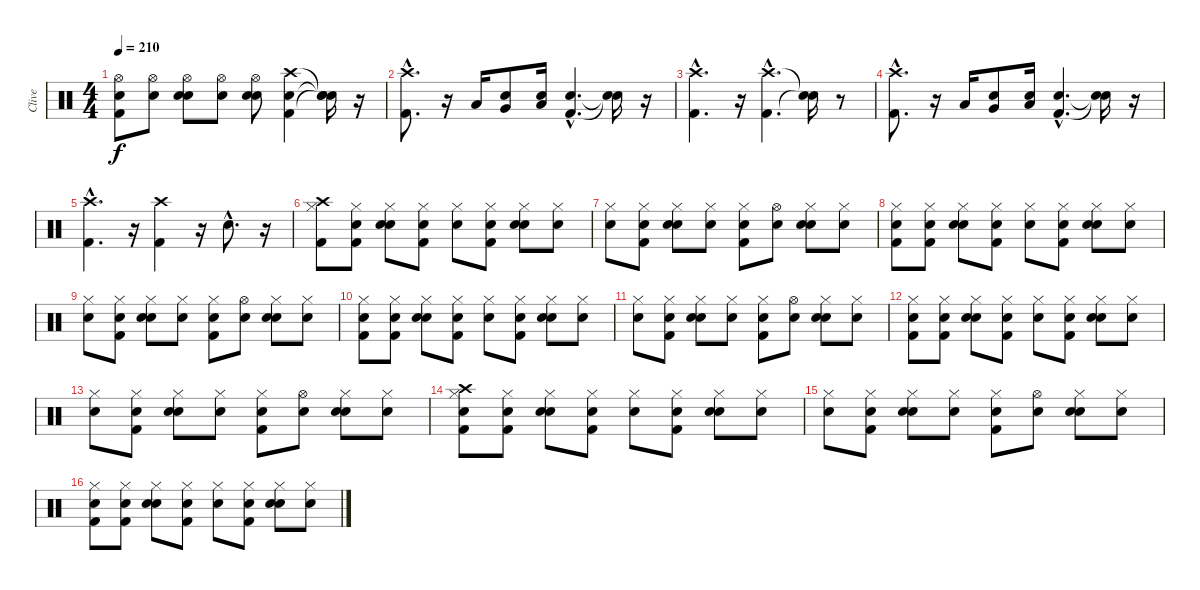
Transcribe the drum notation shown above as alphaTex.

\track ("Clive" "Clive") {instrument percussion}
\staff {score}
\articulation defaults
\ts (4 4)
\tempo 210
\clef neutral
\ks c
("Snare (hit)" "Kick (hit) 2" "Hi-Hat (open)").8{dy f} ("Snare (hit)" "Hi-Hat (open)").8 ("Snare (hit)" "Snare (hit) 2" "Hi-Hat (open)").8 ("Snare (hit)" "Hi-Hat (open)").8 ("Snare (hit)" "Snare (hit) 2" "Hi-Hat (open)").8 ("Snare (hit)" "Kick (hit) 2" "Crash high (hit)").4 ("Snare (hit)"{t} "Snare (hit)"{t} "Snare (hit)"{t}).16 r.16 |
("Kick (hit) 2"{hac} "Crash high (hit)"{hac}).8{d} r.16 "Low Tom (hit)".16 ("Snare (hit)" "Very Low Tom (hit)").8 ("Snare (hit)" "Low Floor Tom (hit)").16 ("Snare (hit)"{hac} "Kick (hit) 2"{hac}).4{d} ("Snare (hit)"{t} "Snare (hit)"{t}).16 r.16 |
("Kick (hit) 2"{hac} "Crash high (hit)"{hac}).4{d} r.16 ("Kick (hit) 2"{hac} "Crash high (hit)"{hac}).4{d} ("Snare (hit)"{t} "Snare (hit)"{t}).16 r.8 |
("Kick (hit) 2"{hac} "Crash high (hit)"{hac}).8{d} r.16 "Low Tom (hit)".16 ("Snare (hit)" "Very Low Tom (hit)").8 ("Snare (hit)" "Low Floor Tom (hit)").16 ("Snare (hit)"{hac} "Kick (hit) 2"{hac}).4{d} ("Snare (hit)"{t} "Snare (hit)"{t}).16 r.16 |
("Kick (hit) 2"{hac} "Crash high (hit)"{hac}).4{d} r.16 ("Kick (hit) 2" "Crash high (hit)").4 r.16 "Snare (hit) 2"{hac}.8{d} r.16 |
("Kick (hit) 2" "Hi-Hat (closed)" "Crash high (hit)").8 ("Snare (hit)" "Kick (hit) 2" "Hi-Hat (closed)").8 ("Snare (hit)" "Snare (hit) 2" "Hi-Hat (closed)").8 ("Snare (hit)" "Kick (hit) 2" "Hi-Hat (closed)").8 ("Snare (hit)" "Hi-Hat (closed)").8 ("Snare (hit)" "Kick (hit) 2" "Hi-Hat (closed)").8 ("Snare (hit)" "Snare (hit) 2" "Hi-Hat (closed)").8 ("Snare (hit)" "Hi-Hat (closed)").8 |
("Snare (hit)" "Hi-Hat (closed)").8 ("Snare (hit)" "Kick (hit) 2" "Hi-Hat (closed)").8 ("Snare (hit)" "Snare (hit) 2" "Hi-Hat (closed)").8 ("Snare (hit)" "Hi-Hat (closed)").8 ("Snare (hit)" "Kick (hit) 2" "Hi-Hat (closed)").8 ("Snare (hit)" "Hi-Hat (open)").8 ("Snare (hit)" "Snare (hit) 2" "Hi-Hat (closed)").8 ("Snare (hit)" "Hi-Hat (closed)").8 |
("Snare (hit)" "Kick (hit) 2" "Hi-Hat (closed)").8 ("Snare (hit)" "Kick (hit) 2" "Hi-Hat (closed)").8 ("Snare (hit)" "Snare (hit) 2" "Hi-Hat (closed)").8 ("Snare (hit)" "Kick (hit) 2" "Hi-Hat (closed)").8 ("Snare (hit)" "Hi-Hat (closed)").8 ("Snare (hit)" "Kick (hit) 2" "Hi-Hat (closed)").8 ("Snare (hit)" "Snare (hit) 2" "Hi-Hat (closed)").8 ("Snare (hit)" "Hi-Hat (closed)").8 |
("Snare (hit)" "Hi-Hat (closed)").8 ("Snare (hit)" "Kick (hit) 2" "Hi-Hat (closed)").8 ("Snare (hit)" "Snare (hit) 2" "Hi-Hat (closed)").8 ("Snare (hit)" "Hi-Hat (closed)").8 ("Snare (hit)" "Kick (hit) 2" "Hi-Hat (closed)").8 ("Snare (hit)" "Hi-Hat (open)").8 ("Snare (hit)" "Snare (hit) 2" "Hi-Hat (closed)").8 ("Snare (hit)" "Hi-Hat (closed)").8 |
("Snare (hit)" "Kick (hit) 2" "Hi-Hat (closed)").8 ("Snare (hit)" "Kick (hit) 2" "Hi-Hat (closed)").8 ("Snare (hit)" "Snare (hit) 2" "Hi-Hat (closed)").8 ("Snare (hit)" "Kick (hit) 2" "Hi-Hat (closed)").8 ("Snare (hit)" "Hi-Hat (closed)").8 ("Snare (hit)" "Kick (hit) 2" "Hi-Hat (closed)").8 ("Snare (hit)" "Snare (hit) 2" "Hi-Hat (closed)").8 ("Snare (hit)" "Hi-Hat (closed)").8 |
("Snare (hit)" "Hi-Hat (closed)").8 ("Snare (hit)" "Kick (hit) 2" "Hi-Hat (closed)").8 ("Snare (hit)" "Snare (hit) 2" "Hi-Hat (closed)").8 ("Snare (hit)" "Hi-Hat (closed)").8 ("Snare (hit)" "Kick (hit) 2" "Hi-Hat (closed)").8 ("Snare (hit)" "Hi-Hat (open)").8 ("Snare (hit)" "Snare (hit) 2" "Hi-Hat (closed)").8 ("Snare (hit)" "Hi-Hat (closed)").8 |
("Snare (hit)" "Kick (hit) 2" "Hi-Hat (closed)").8 ("Snare (hit)" "Kick (hit) 2" "Hi-Hat (closed)").8 ("Snare (hit)" "Snare (hit) 2" "Hi-Hat (closed)").8 ("Snare (hit)" "Kick (hit) 2" "Hi-Hat (closed)").8 ("Snare (hit)" "Hi-Hat (closed)").8 ("Snare (hit)" "Kick (hit) 2" "Hi-Hat (closed)").8 ("Snare (hit)" "Snare (hit) 2" "Hi-Hat (closed)").8 ("Snare (hit)" "Hi-Hat (closed)").8 |
("Snare (hit)" "Hi-Hat (closed)").8 ("Snare (hit)" "Kick (hit) 2" "Hi-Hat (closed)").8 ("Snare (hit)" "Snare (hit) 2" "Hi-Hat (closed)").8 ("Snare (hit)" "Hi-Hat (closed)").8 ("Snare (hit)" "Kick (hit) 2" "Hi-Hat (closed)").8 ("Snare (hit)" "Hi-Hat (open)").8 ("Snare (hit)" "Snare (hit) 2" "Hi-Hat (closed)").8 ("Snare (hit)" "Hi-Hat (closed)").8 |
("Snare (hit)" "Kick (hit) 2" "Hi-Hat (closed)" "Crash high (hit)").8 ("Snare (hit)" "Kick (hit) 2" "Hi-Hat (closed)").8 ("Snare (hit)" "Snare (hit) 2" "Hi-Hat (closed)").8 ("Snare (hit)" "Kick (hit) 2" "Hi-Hat (closed)").8 ("Snare (hit)" "Hi-Hat (closed)").8 ("Snare (hit)" "Kick (hit) 2" "Hi-Hat (closed)").8 ("Snare (hit)" "Snare (hit) 2" "Hi-Hat (closed)").8 ("Snare (hit)" "Hi-Hat (closed)").8 |
("Snare (hit)" "Hi-Hat (closed)").8 ("Snare (hit)" "Kick (hit) 2" "Hi-Hat (closed)").8 ("Snare (hit)" "Snare (hit) 2" "Hi-Hat (closed)").8 ("Snare (hit)" "Hi-Hat (closed)").8 ("Snare (hit)" "Kick (hit) 2" "Hi-Hat (closed)").8 ("Snare (hit)" "Hi-Hat (open)").8 ("Snare (hit)" "Snare (hit) 2" "Hi-Hat (closed)").8 ("Snare (hit)" "Hi-Hat (closed)").8 |
("Snare (hit)" "Kick (hit) 2" "Hi-Hat (closed)").8 ("Snare (hit)" "Kick (hit) 2" "Hi-Hat (closed)").8 ("Snare (hit)" "Snare (hit) 2" "Hi-Hat (closed)").8 ("Snare (hit)" "Kick (hit) 2" "Hi-Hat (closed)").8 ("Snare (hit)" "Hi-Hat (closed)").8 ("Snare (hit)" "Kick (hit) 2" "Hi-Hat (closed)").8 ("Snare (hit)" "Snare (hit) 2" "Hi-Hat (closed)").8 ("Snare (hit)" "Hi-Hat (closed)").8
